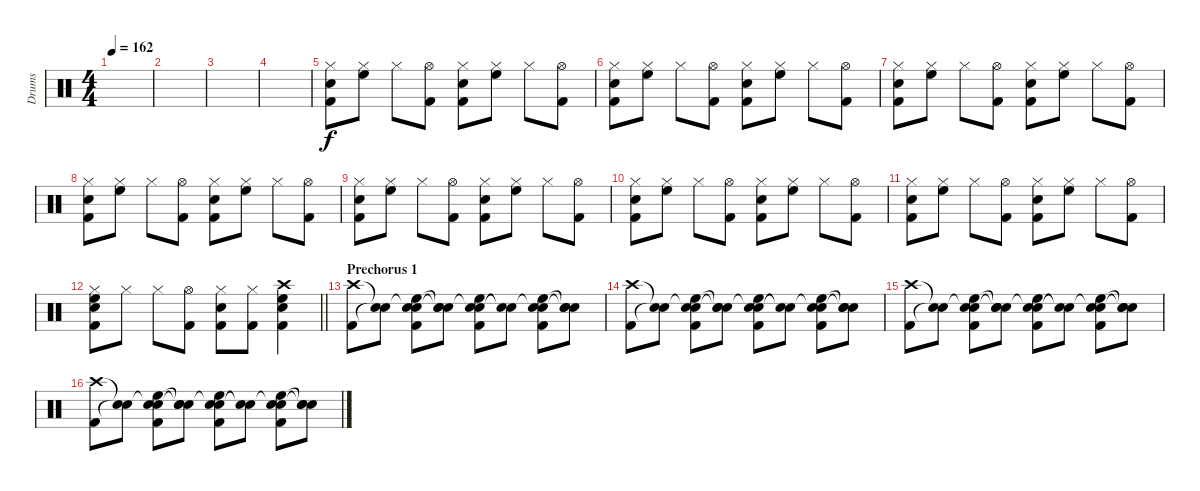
\track ("Drums" "Drums") {instrument percussion}
\staff {score}
\articulation defaults
\ts (4 4)
\tempo 162
\clef neutral
\ks c
|
|
|
|
("Hi-Hat (closed)" "Snare (hit) 2" "Kick (hit) 2").8 ("Hi-Hat (closed)" "High Floor Tom (hit)").8 "Hi-Hat (closed)".8 ("Hi-Hat (open)" "Kick (hit) 2").8 ("Hi-Hat (closed)" "Snare (hit) 2" "Kick (hit) 2").8 ("Hi-Hat (closed)" "High Floor Tom (hit)").8 "Hi-Hat (closed)".8 ("Hi-Hat (open)" "Kick (hit) 2").8 |
("Hi-Hat (closed)" "Snare (hit) 2" "Kick (hit) 2").8 ("Hi-Hat (closed)" "High Floor Tom (hit)").8 "Hi-Hat (closed)".8 ("Hi-Hat (open)" "Kick (hit) 2").8 ("Hi-Hat (closed)" "Snare (hit) 2" "Kick (hit) 2").8 ("Hi-Hat (closed)" "High Floor Tom (hit)").8 "Hi-Hat (closed)".8 ("Hi-Hat (open)" "Kick (hit) 2").8 |
("Hi-Hat (closed)" "Snare (hit) 2" "Kick (hit) 2").8 ("Hi-Hat (closed)" "High Floor Tom (hit)").8 "Hi-Hat (closed)".8 ("Hi-Hat (open)" "Kick (hit) 2").8 ("Hi-Hat (closed)" "Snare (hit) 2" "Kick (hit) 2").8 ("Hi-Hat (closed)" "High Floor Tom (hit)").8 "Hi-Hat (closed)".8 ("Hi-Hat (open)" "Kick (hit) 2").8 |
("Hi-Hat (closed)" "Snare (hit) 2" "Kick (hit) 2").8 ("Hi-Hat (closed)" "High Floor Tom (hit)").8 "Hi-Hat (closed)".8 ("Hi-Hat (open)" "Kick (hit) 2").8 ("Hi-Hat (closed)" "Snare (hit) 2" "Kick (hit) 2").8 ("Hi-Hat (closed)" "High Floor Tom (hit)").8 "Hi-Hat (closed)".8 ("Hi-Hat (open)" "Kick (hit) 2").8 |
("Hi-Hat (closed)" "Snare (hit) 2" "Kick (hit) 2").8 ("Hi-Hat (closed)" "High Floor Tom (hit)").8 "Hi-Hat (closed)".8 ("Hi-Hat (open)" "Kick (hit) 2").8 ("Hi-Hat (closed)" "Snare (hit) 2" "Kick (hit) 2").8 ("Hi-Hat (closed)" "High Floor Tom (hit)").8 "Hi-Hat (closed)".8 ("Hi-Hat (open)" "Kick (hit) 2").8 |
("Hi-Hat (closed)" "Snare (hit) 2" "Kick (hit) 2").8 ("Hi-Hat (closed)" "High Floor Tom (hit)").8 "Hi-Hat (closed)".8 ("Hi-Hat (open)" "Kick (hit) 2").8 ("Hi-Hat (closed)" "Snare (hit) 2" "Kick (hit) 2").8 ("Hi-Hat (closed)" "High Floor Tom (hit)").8 "Hi-Hat (closed)".8 ("Hi-Hat (open)" "Kick (hit) 2").8 |
("Hi-Hat (closed)" "Snare (hit) 2" "Kick (hit) 2").8 ("Hi-Hat (closed)" "High Floor Tom (hit)").8 "Hi-Hat (closed)".8 ("Hi-Hat (open)" "Kick (hit) 2").8 ("Hi-Hat (closed)" "Snare (hit) 2" "Kick (hit) 2").8 ("Hi-Hat (closed)" "High Floor Tom (hit)").8 "Hi-Hat (closed)".8 ("Hi-Hat (open)" "Kick (hit) 2").8 |
\barLineRight lightlight
("Hi-Hat (closed)" "Snare (hit) 2" "High Floor Tom (hit)" "Kick (hit) 2").8 "Hi-Hat (closed)".8 "Hi-Hat (closed)".8 ("Hi-Hat (open)" "Kick (hit) 2").8 ("Hi-Hat (closed)" "Snare (hit) 2" "Kick (hit) 2").8 ("Hi-Hat (closed)" "Kick (hit) 2").8 ("Crash high (hit)" "Snare (hit) 2" "High Floor Tom (hit)" "Kick (hit) 2").4 |
\section ("" "Prechorus 1")
("Crash high (hit)" "Kick (hit) 2").8 ("Snare (hit)"{t} "Snare (hit)"{t}).8 ("Snare (hit)"{t} "Snare (hit) 2" "High Floor Tom (hit)" "Kick (hit) 2").8 ("Snare (hit)"{t} "Snare (hit) 2" "Snare (hit)"{t}).8 ("Snare (hit)"{t} "Snare (hit) 2" "High Floor Tom (hit)" "Kick (hit) 2").8 ("Snare (hit)"{t} "Snare (hit)"{t}).8 ("Snare (hit)"{t} "Snare (hit) 2" "High Floor Tom (hit)" "Kick (hit) 2").8 ("Snare (hit)"{t} "Snare (hit) 2" "Snare (hit)"{t}).8 |
("Crash high (hit)" "Kick (hit) 2").8 ("Snare (hit)"{t} "Snare (hit)"{t}).8 ("Snare (hit)"{t} "Snare (hit) 2" "High Floor Tom (hit)" "Kick (hit) 2").8 ("Snare (hit)"{t} "Snare (hit) 2" "Snare (hit)"{t}).8 ("Snare (hit)"{t} "Snare (hit) 2" "High Floor Tom (hit)" "Kick (hit) 2").8 ("Snare (hit)"{t} "Snare (hit)"{t}).8 ("Snare (hit)"{t} "Snare (hit) 2" "High Floor Tom (hit)" "Kick (hit) 2").8 ("Snare (hit)"{t} "Snare (hit) 2" "Snare (hit)"{t}).8 |
("Crash high (hit)" "Kick (hit) 2").8 ("Snare (hit)"{t} "Snare (hit)"{t}).8 ("Snare (hit)"{t} "Snare (hit) 2" "High Floor Tom (hit)" "Kick (hit) 2").8 ("Snare (hit)"{t} "Snare (hit) 2" "Snare (hit)"{t}).8 ("Snare (hit)"{t} "Snare (hit) 2" "High Floor Tom (hit)" "Kick (hit) 2").8 ("Snare (hit)"{t} "Snare (hit)"{t}).8 ("Snare (hit)"{t} "Snare (hit) 2" "High Floor Tom (hit)" "Kick (hit) 2").8 ("Snare (hit)"{t} "Snare (hit) 2" "Snare (hit)"{t}).8 |
("Crash high (hit)" "Kick (hit) 2").8 ("Snare (hit)"{t} "Snare (hit)"{t}).8 ("Snare (hit)"{t} "Snare (hit) 2" "High Floor Tom (hit)" "Kick (hit) 2").8 ("Snare (hit)"{t} "Snare (hit) 2" "Snare (hit)"{t}).8 ("Snare (hit)"{t} "Snare (hit) 2" "High Floor Tom (hit)" "Kick (hit) 2").8 ("Snare (hit)"{t} "Snare (hit)"{t}).8 ("Snare (hit)"{t} "Snare (hit) 2" "High Floor Tom (hit)" "Kick (hit) 2").8 ("Snare (hit)"{t} "Snare (hit) 2" "Snare (hit)"{t}).8
